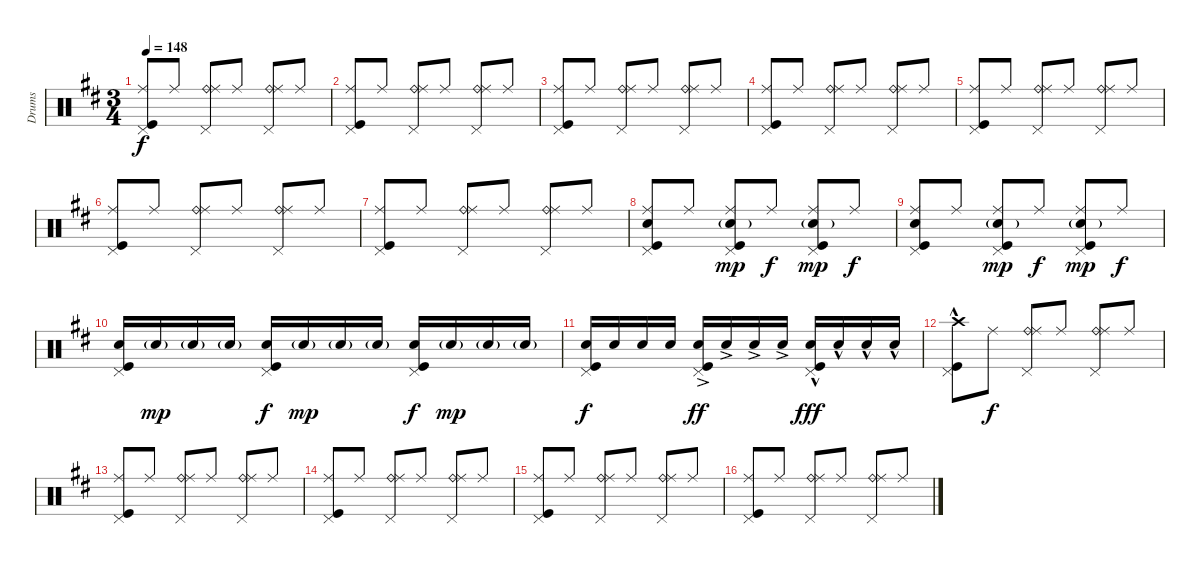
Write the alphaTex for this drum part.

\track ("Drums" "Drums") {instrument percussion}
\staff {score}
\articulation defaults
\ts (3 4)
\tempo 148
\clef neutral
\ks bminor
("Pedal Hi-Hat (hit)" "Ride (middle)" "Kick (hit)").8{dy f} "Ride (middle)".8 ("Pedal Hi-Hat (hit)" "Ride (bell)" "Ride (middle)").8 "Ride (middle)".8 ("Pedal Hi-Hat (hit)" "Ride (bell)" "Ride (middle)").8 "Ride (middle)".8 |
("Pedal Hi-Hat (hit)" "Ride (middle)" "Kick (hit)").8 "Ride (middle)".8 ("Pedal Hi-Hat (hit)" "Ride (bell)" "Ride (middle)").8 "Ride (middle)".8 ("Pedal Hi-Hat (hit)" "Ride (bell)" "Ride (middle)").8 "Ride (middle)".8 |
("Pedal Hi-Hat (hit)" "Ride (middle)" "Kick (hit)").8 "Ride (middle)".8 ("Pedal Hi-Hat (hit)" "Ride (bell)" "Ride (middle)").8 "Ride (middle)".8 ("Pedal Hi-Hat (hit)" "Ride (bell)" "Ride (middle)").8 "Ride (middle)".8 |
("Pedal Hi-Hat (hit)" "Ride (middle)" "Kick (hit)").8 "Ride (middle)".8 ("Pedal Hi-Hat (hit)" "Ride (bell)" "Ride (middle)").8 "Ride (middle)".8 ("Pedal Hi-Hat (hit)" "Ride (bell)" "Ride (middle)").8 "Ride (middle)".8 |
("Pedal Hi-Hat (hit)" "Ride (middle)" "Kick (hit)").8 "Ride (middle)".8 ("Pedal Hi-Hat (hit)" "Ride (bell)" "Ride (middle)").8 "Ride (middle)".8 ("Pedal Hi-Hat (hit)" "Ride (bell)" "Ride (middle)").8 "Ride (middle)".8 |
("Pedal Hi-Hat (hit)" "Ride (middle)" "Kick (hit)").8 "Ride (middle)".8 ("Pedal Hi-Hat (hit)" "Ride (bell)" "Ride (middle)").8 "Ride (middle)".8 ("Pedal Hi-Hat (hit)" "Ride (bell)" "Ride (middle)").8 "Ride (middle)".8 |
("Pedal Hi-Hat (hit)" "Ride (middle)" "Kick (hit)").8 "Ride (middle)".8 ("Pedal Hi-Hat (hit)" "Ride (bell)" "Ride (middle)").8 "Ride (middle)".8 ("Pedal Hi-Hat (hit)" "Ride (bell)" "Ride (middle)").8 "Ride (middle)".8 |
("Pedal Hi-Hat (hit)" "Snare (hit) 2" "Ride (middle)" "Kick (hit)").8 "Ride (middle)".8 ("Pedal Hi-Hat (hit)" "Snare (hit) 2"{g} "Ride (middle)" "Kick (hit)").8{dy mp} "Ride (middle)".8{dy f} ("Pedal Hi-Hat (hit)" "Snare (hit) 2"{g} "Ride (middle)" "Kick (hit)").8{dy mp} "Ride (middle)".8{dy f} |
("Pedal Hi-Hat (hit)" "Snare (hit) 2" "Ride (middle)" "Kick (hit)").8 "Ride (middle)".8 ("Pedal Hi-Hat (hit)" "Snare (hit) 2"{g} "Ride (middle)" "Kick (hit)").8{dy mp} "Ride (middle)".8{dy f} ("Pedal Hi-Hat (hit)" "Snare (hit) 2"{g} "Ride (middle)" "Kick (hit)").8{dy mp} "Ride (middle)".8{dy f} |
("Pedal Hi-Hat (hit)" "Snare (hit) 2" "Kick (hit)").16 "Snare (hit) 2"{g}.16{dy mp} "Snare (hit) 2"{g}.16 "Snare (hit) 2"{g}.16 ("Pedal Hi-Hat (hit)" "Snare (hit) 2" "Kick (hit)").16{dy f} "Snare (hit) 2"{g}.16{dy mp} "Snare (hit) 2"{g}.16 "Snare (hit) 2"{g}.16 ("Pedal Hi-Hat (hit)" "Snare (hit) 2" "Kick (hit)").16{dy f} "Snare (hit) 2"{g}.16{dy mp} "Snare (hit) 2"{g}.16 "Snare (hit) 2"{g}.16 |
("Pedal Hi-Hat (hit)" "Snare (hit) 2" "Kick (hit)").16{dy f} "Snare (hit) 2".16 "Snare (hit) 2".16 "Snare (hit) 2".16 ("Pedal Hi-Hat (hit)"{ac} "Snare (hit) 2"{ac} "Kick (hit)"{ac}).16{dy ff} "Snare (hit) 2"{ac}.16 "Snare (hit) 2"{ac}.16 "Snare (hit) 2"{ac}.16 ("Pedal Hi-Hat (hit)"{hac} "Snare (hit) 2"{hac} "Kick (hit)"{hac}).16{dy fff} "Snare (hit) 2"{hac}.16 "Snare (hit) 2"{hac}.16 "Snare (hit) 2"{hac}.16 |
("Pedal Hi-Hat (hit)" "Crash high (hit)"{hac} "Kick (hit)"{hac}).8 "Ride (middle)".8{dy f} ("Pedal Hi-Hat (hit)" "Ride (bell)" "Ride (middle)").8 "Ride (middle)".8 ("Pedal Hi-Hat (hit)" "Ride (bell)" "Ride (middle)").8 "Ride (middle)".8 |
("Pedal Hi-Hat (hit)" "Ride (middle)" "Kick (hit)").8 "Ride (middle)".8 ("Pedal Hi-Hat (hit)" "Ride (bell)" "Ride (middle)").8 "Ride (middle)".8 ("Pedal Hi-Hat (hit)" "Ride (bell)" "Ride (middle)").8 "Ride (middle)".8 |
("Pedal Hi-Hat (hit)" "Ride (middle)" "Kick (hit)").8 "Ride (middle)".8 ("Pedal Hi-Hat (hit)" "Ride (bell)" "Ride (middle)").8 "Ride (middle)".8 ("Pedal Hi-Hat (hit)" "Ride (bell)" "Ride (middle)").8 "Ride (middle)".8 |
("Pedal Hi-Hat (hit)" "Ride (middle)" "Kick (hit)").8 "Ride (middle)".8 ("Pedal Hi-Hat (hit)" "Ride (bell)" "Ride (middle)").8 "Ride (middle)".8 ("Pedal Hi-Hat (hit)" "Ride (bell)" "Ride (middle)").8 "Ride (middle)".8 |
("Pedal Hi-Hat (hit)" "Ride (middle)" "Kick (hit)").8 "Ride (middle)".8 ("Pedal Hi-Hat (hit)" "Ride (bell)" "Ride (middle)").8 "Ride (middle)".8 ("Pedal Hi-Hat (hit)" "Ride (bell)" "Ride (middle)").8 "Ride (middle)".8
